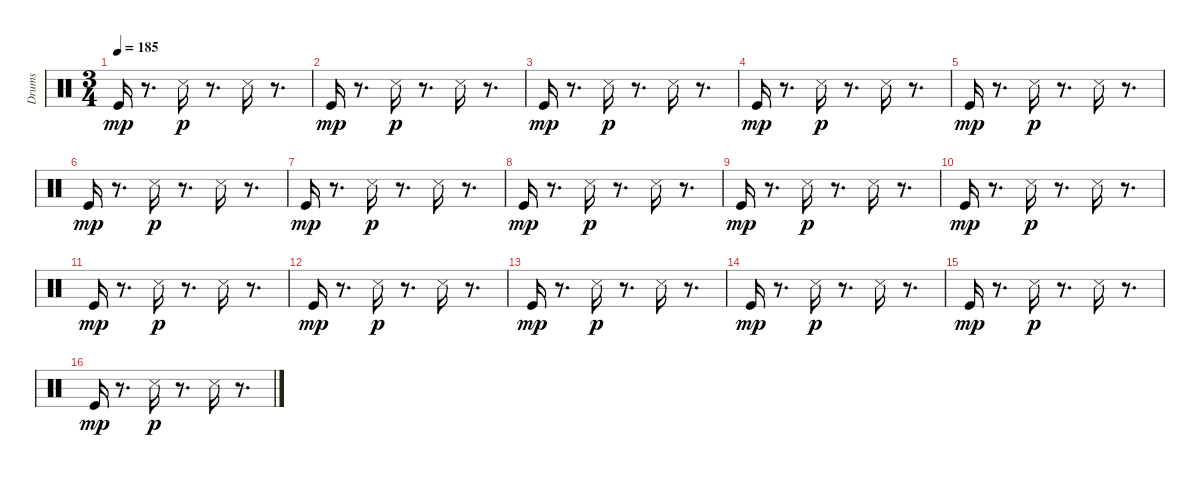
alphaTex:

\track ("Drums " "Drums ") {instrument percussion}
\staff {score}
\articulation defaults
\ts (3 4)
\tempo 185
\clef neutral
\ks c "Kick (hit)".16{dy mp volume 13}
r.8{d} "Snare (side stick) 3".16{dy p volume 15} r.8{d} "Snare (side stick) 3".16 r.8{d} |
"Kick (hit)".16{dy mp} r.8{d} "Snare (side stick) 3".16{dy p} r.8{d} "Snare (side stick) 3".16 r.8{d} |
"Kick (hit)".16{dy mp} r.8{d} "Snare (side stick) 3".16{dy p} r.8{d} "Snare (side stick) 3".16 r.8{d} |
"Kick (hit)".16{dy mp} r.8{d} "Snare (side stick) 3".16{dy p} r.8{d} "Snare (side stick) 3".16 r.8{d} |
"Kick (hit)".16{dy mp} r.8{d} "Snare (side stick) 3".16{dy p} r.8{d} "Snare (side stick) 3".16 r.8{d} |
"Kick (hit)".16{dy mp} r.8{d} "Snare (side stick) 3".16{dy p} r.8{d} "Snare (side stick) 3".16 r.8{d} |
"Kick (hit)".16{dy mp} r.8{d} "Snare (side stick) 3".16{dy p} r.8{d} "Snare (side stick) 3".16 r.8{d} |
"Kick (hit)".16{dy mp} r.8{d} "Snare (side stick) 3".16{dy p} r.8{d} "Snare (side stick) 3".16 r.8{d} |
"Kick (hit)".16{dy mp} r.8{d} "Snare (side stick) 3".16{dy p} r.8{d} "Snare (side stick) 3".16 r.8{d} |
"Kick (hit)".16{dy mp} r.8{d} "Snare (side stick) 3".16{dy p} r.8{d} "Snare (side stick) 3".16 r.8{d} |
"Kick (hit)".16{dy mp} r.8{d} "Snare (side stick) 3".16{dy p} r.8{d} "Snare (side stick) 3".16 r.8{d} |
"Kick (hit)".16{dy mp volume 14} r.8{d} "Snare (side stick) 3".16{dy p volume 12} r.8{d} "Snare (side stick) 3".16{volume 12} r.8{d} |
"Kick (hit)".16{dy mp} r.8{d} "Snare (side stick) 3".16{dy p} r.8{d} "Snare (side stick) 3".16 r.8{d} |
"Kick (hit)".16{dy mp volume 7} r.8{d} "Snare (side stick) 3".16{dy p volume 4} r.8{d} "Snare (side stick) 3".16{volume 3} r.8{d} |
"Kick (hit)".16{dy mp volume 1} r.8{d} "Snare (side stick) 3".16{dy p} r.8{d} "Snare (side stick) 3".16{volume 0} r.8{d} |
"Kick (hit)".16{dy mp} r.8{d} "Snare (side stick) 3".16{dy p} r.8{d} "Snare (side stick) 3".16 r.8{d}
